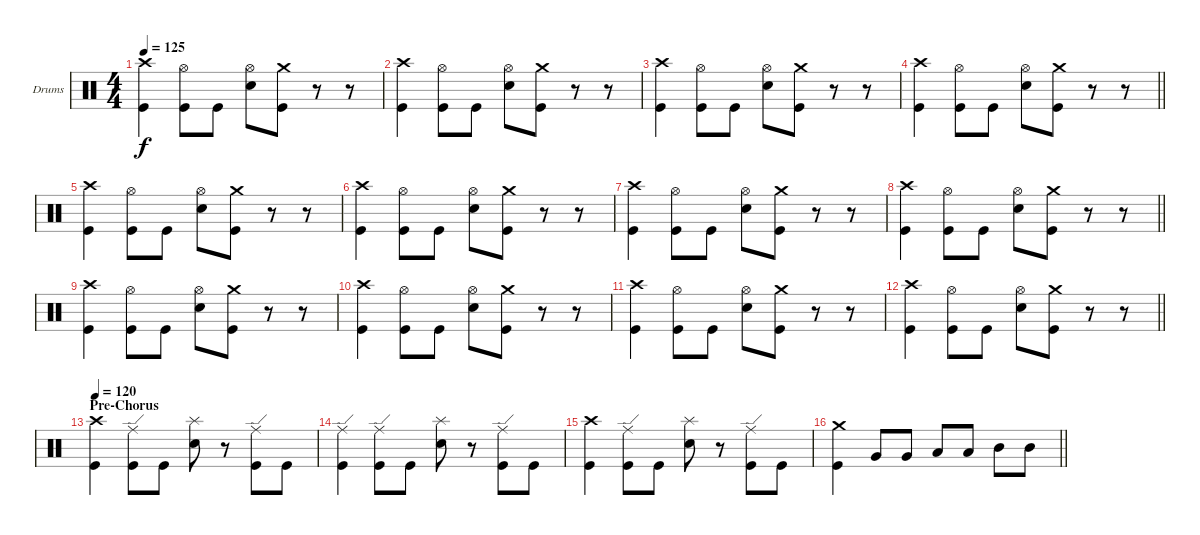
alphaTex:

\bracketExtendMode groupsimilarinstruments
\firstSystemTrackNameOrientation horizontal
\otherSystemsTrackNameOrientation horizontal
\track ("Drumkit" "Drums") {instrument percussion}
\staff {score}
\articulation defaults
\ts (4 4)
\tempo 125
\clef neutral
\ks c
("Crash high (hit)" "Kick (hit)").4{dy f} ("Hi-Hat (open)" "Kick (hit)").8 "Kick (hit)".8 ("Hi-Hat (open)" "Snare (hit) 2").8 ("Crash medium (hit)" "Kick (hit)").8 r.8 r.8 |
("Crash high (hit)" "Kick (hit)").4 ("Hi-Hat (open)" "Kick (hit)").8 "Kick (hit)".8 ("Hi-Hat (open)" "Snare (hit) 2").8 ("Crash medium (hit)" "Kick (hit)").8 r.8 r.8 |
("Crash high (hit)" "Kick (hit)").4 ("Hi-Hat (open)" "Kick (hit)").8 "Kick (hit)".8 ("Hi-Hat (open)" "Snare (hit) 2").8 ("Crash medium (hit)" "Kick (hit)").8 r.8 r.8 |
\barLineRight lightlight
("Crash high (hit)" "Kick (hit)").4 ("Hi-Hat (open)" "Kick (hit)").8 "Kick (hit)".8 ("Hi-Hat (open)" "Snare (hit) 2").8 ("Crash medium (hit)" "Kick (hit)").8 r.8 r.8 |
("Crash high (hit)" "Kick (hit)").4 ("Hi-Hat (open)" "Kick (hit)").8 "Kick (hit)".8 ("Hi-Hat (open)" "Snare (hit) 2").8 ("Crash medium (hit)" "Kick (hit)").8 r.8 r.8 |
("Crash high (hit)" "Kick (hit)").4 ("Hi-Hat (open)" "Kick (hit)").8 "Kick (hit)".8 ("Hi-Hat (open)" "Snare (hit) 2").8 ("Crash medium (hit)" "Kick (hit)").8 r.8 r.8 |
("Crash high (hit)" "Kick (hit)").4 ("Hi-Hat (open)" "Kick (hit)").8 "Kick (hit)".8 ("Hi-Hat (open)" "Snare (hit) 2").8 ("Crash medium (hit)" "Kick (hit)").8 r.8 r.8 |
\barLineRight lightlight
("Crash high (hit)" "Kick (hit)").4 ("Hi-Hat (open)" "Kick (hit)").8 "Kick (hit)".8 ("Hi-Hat (open)" "Snare (hit) 2").8 ("Crash medium (hit)" "Kick (hit)").8 r.8 r.8 |
("Crash high (hit)" "Kick (hit)").4 ("Hi-Hat (open)" "Kick (hit)").8 "Kick (hit)".8 ("Hi-Hat (open)" "Snare (hit) 2").8 ("Crash medium (hit)" "Kick (hit)").8 r.8 r.8 |
("Crash high (hit)" "Kick (hit)").4 ("Hi-Hat (open)" "Kick (hit)").8 "Kick (hit)".8 ("Hi-Hat (open)" "Snare (hit) 2").8 ("Crash medium (hit)" "Kick (hit)").8 r.8 r.8 |
("Crash high (hit)" "Kick (hit)").4 ("Hi-Hat (open)" "Kick (hit)").8 "Kick (hit)".8 ("Hi-Hat (open)" "Snare (hit) 2").8 ("Crash medium (hit)" "Kick (hit)").8 r.8 r.8 |
\barLineRight lightlight
("Crash high (hit)" "Kick (hit)").4 ("Hi-Hat (open)" "Kick (hit)").8 "Kick (hit)".8 ("Hi-Hat (open)" "Snare (hit) 2").8 ("Crash medium (hit)" "Kick (hit)").8 r.8 r.8 |
\section ("" "Pre-Chorus")
\tempo 120
("Crash high (hit)" "Kick (hit)").4 ("Ride (edge)" "Kick (hit)").8 "Kick (hit)".8 ("Splash (hit)" "Snare (hit) 2").8 r.8 ("Ride (edge)" "Kick (hit)").8 "Kick (hit)".8 |
("Ride (edge)" "Kick (hit)").4 ("Ride (edge)" "Kick (hit)").8 "Kick (hit)".8 ("Splash (hit)" "Snare (hit) 2").8 r.8 ("Ride (edge)" "Kick (hit)").8 "Kick (hit)".8 |
("Crash high (hit)" "Kick (hit)").4 ("Ride (edge)" "Kick (hit)").8 "Kick (hit)".8 ("Splash (hit)" "Snare (hit) 2").8 r.8 ("Ride (edge)" "Kick (hit)").8 "Kick (hit)".8 |
\barLineRight lightlight
("Crash medium (hit)" "Kick (hit)").4 "Very Low Tom (hit)".8 "Very Low Tom (hit)".8 "Low Tom (hit)".8 "Low Tom (hit)".8 "Mid Tom (hit)".8 "Mid Tom (hit)".8
